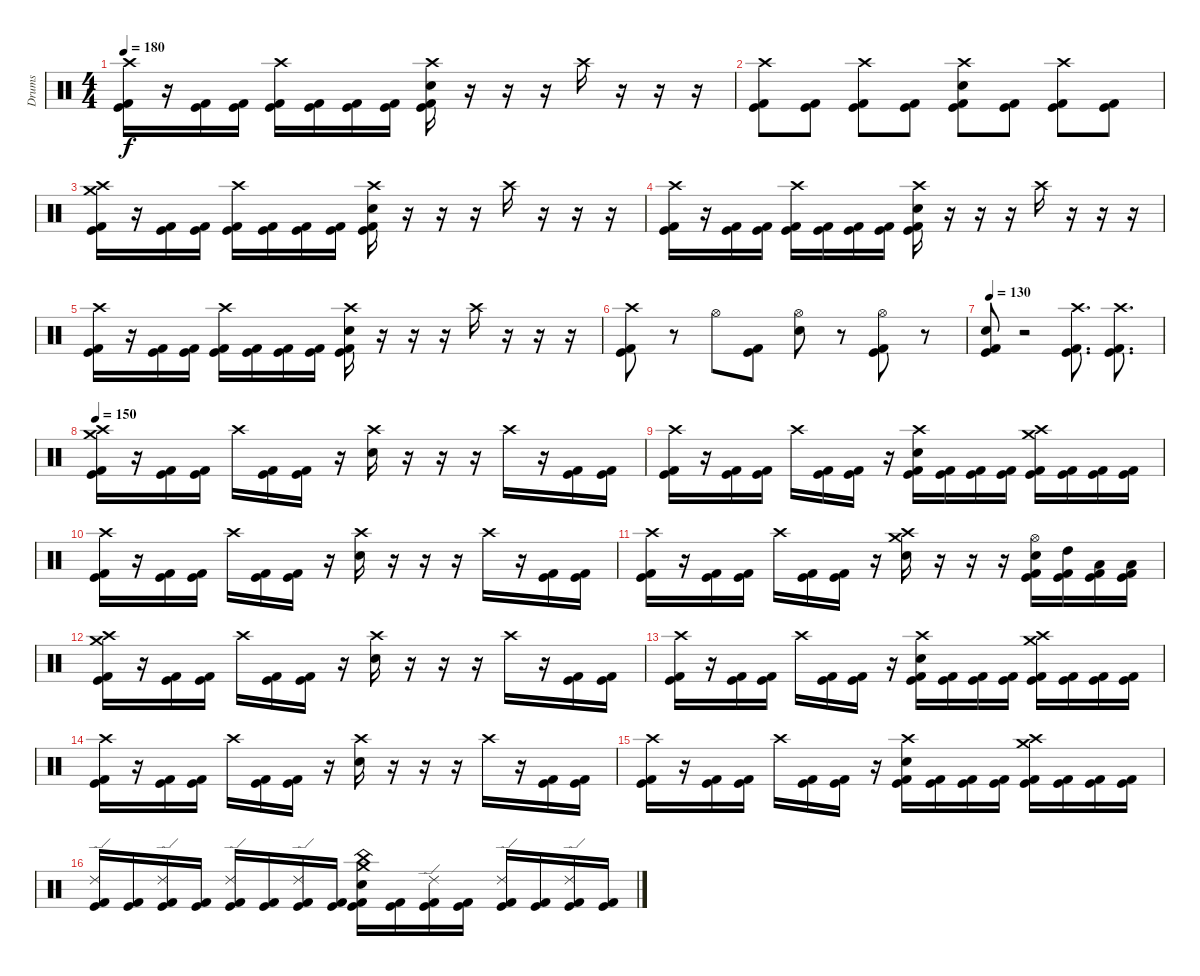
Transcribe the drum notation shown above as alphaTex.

\track ("Drums" "Drums") {instrument percussion}
\staff {score}
\articulation defaults
\ts (4 4)
\tempo 180
\clef neutral
\ks c
("Crash high (hit)" "Kick (hit)" "Kick (hit) 2").16{dy f} r.16 ("Kick (hit)" "Kick (hit) 2").16 ("Kick (hit)" "Kick (hit) 2").16 ("Crash high (hit)" "Kick (hit)" "Kick (hit) 2").16 ("Kick (hit)" "Kick (hit) 2").16 ("Kick (hit)" "Kick (hit) 2").16 ("Kick (hit)" "Kick (hit) 2").16 ("Crash high (hit)" "Electric Snare (hit)" "Kick (hit)" "Kick (hit) 2").16 r.16 r.16 r.16 "Crash high (hit)".16 r.16 r.16 r.16 |
("Crash high (hit)" "Kick (hit)" "Kick (hit) 2").8 ("Kick (hit)" "Kick (hit) 2").8 ("Crash high (hit)" "Kick (hit)" "Kick (hit) 2").8 ("Kick (hit)" "Kick (hit) 2").8 ("Crash high (hit)" "Electric Snare (hit)" "Kick (hit)" "Kick (hit) 2").8 ("Kick (hit)" "Kick (hit) 2").8 ("Crash high (hit)" "Kick (hit)" "Kick (hit) 2").8 ("Kick (hit)" "Kick (hit) 2").8 |
("Crash medium (hit)" "Crash high (hit)" "Kick (hit)" "Kick (hit) 2").16 r.16 ("Kick (hit)" "Kick (hit) 2").16 ("Kick (hit)" "Kick (hit) 2").16 ("Crash high (hit)" "Kick (hit)" "Kick (hit) 2").16 ("Kick (hit)" "Kick (hit) 2").16 ("Kick (hit)" "Kick (hit) 2").16 ("Kick (hit)" "Kick (hit) 2").16 ("Crash high (hit)" "Electric Snare (hit)" "Kick (hit)" "Kick (hit) 2").16 r.16 r.16 r.16 "Crash high (hit)".16 r.16 r.16 r.16 |
("Crash high (hit)" "Kick (hit)" "Kick (hit) 2").16 r.16 ("Kick (hit)" "Kick (hit) 2").16 ("Kick (hit)" "Kick (hit) 2").16 ("Crash high (hit)" "Kick (hit)" "Kick (hit) 2").16 ("Kick (hit)" "Kick (hit) 2").16 ("Kick (hit)" "Kick (hit) 2").16 ("Kick (hit)" "Kick (hit) 2").16 ("Crash high (hit)" "Electric Snare (hit)" "Kick (hit)" "Kick (hit) 2").16 r.16 r.16 r.16 "Crash high (hit)".16 r.16 r.16 r.16 |
("Crash high (hit)" "Kick (hit)" "Kick (hit) 2").16 r.16 ("Kick (hit)" "Kick (hit) 2").16 ("Kick (hit)" "Kick (hit) 2").16 ("Crash high (hit)" "Kick (hit)" "Kick (hit) 2").16 ("Kick (hit)" "Kick (hit) 2").16 ("Kick (hit)" "Kick (hit) 2").16 ("Kick (hit)" "Kick (hit) 2").16 ("Crash high (hit)" "Electric Snare (hit)" "Kick (hit)" "Kick (hit) 2").16 r.16 r.16 r.16 "Crash high (hit)".16 r.16 r.16 r.16 |
("Crash high (hit)" "Kick (hit)" "Kick (hit) 2").8 r.8 "Hi-Hat (open)".8 ("Kick (hit)" "Kick (hit) 2").8 ("Hi-Hat (open)" "Electric Snare (hit)").8 r.8 ("Hi-Hat (open)" "Kick (hit)" "Kick (hit) 2").8 r.8 |
\tempo 130
("Electric Snare (hit)" "Kick (hit)" "Kick (hit) 2").8 r.2 ("Crash high (hit)" "Kick (hit)" "Kick (hit) 2").8{d} ("Crash high (hit)" "Kick (hit)" "Kick (hit) 2").8{d} |
\tempo 150
("Crash medium (hit)" "Crash high (hit)" "Kick (hit)" "Kick (hit) 2").16 r.16 ("Kick (hit)" "Kick (hit) 2").16 ("Kick (hit)" "Kick (hit) 2").16 "Crash high (hit)".16 ("Kick (hit)" "Kick (hit) 2").16 ("Kick (hit)" "Kick (hit) 2").16 r.16 ("Crash high (hit)" "Electric Snare (hit)").16 r.16 r.16 r.16 "Crash high (hit)".16 r.16 ("Kick (hit)" "Kick (hit) 2").16 ("Kick (hit)" "Kick (hit) 2").16 |
("Crash high (hit)" "Kick (hit)" "Kick (hit) 2").16 r.16 ("Kick (hit)" "Kick (hit) 2").16 ("Kick (hit)" "Kick (hit) 2").16 "Crash high (hit)".16 ("Kick (hit)" "Kick (hit) 2").16 ("Kick (hit)" "Kick (hit) 2").16 r.16 ("Crash high (hit)" "Electric Snare (hit)" "Kick (hit)" "Kick (hit) 2").16 ("Kick (hit)" "Kick (hit) 2").16 ("Kick (hit)" "Kick (hit) 2").16 ("Kick (hit)" "Kick (hit) 2").16 ("Crash medium (hit)" "Crash high (hit)" "Kick (hit)" "Kick (hit) 2").16 ("Kick (hit)" "Kick (hit) 2").16 ("Kick (hit)" "Kick (hit) 2").16 ("Kick (hit)" "Kick (hit) 2").16 |
("Crash high (hit)" "Kick (hit)" "Kick (hit) 2").16 r.16 ("Kick (hit)" "Kick (hit) 2").16 ("Kick (hit)" "Kick (hit) 2").16 "Crash high (hit)".16 ("Kick (hit)" "Kick (hit) 2").16 ("Kick (hit)" "Kick (hit) 2").16 r.16 ("Crash high (hit)" "Electric Snare (hit)").16 r.16 r.16 r.16 "Crash high (hit)".16 r.16 ("Kick (hit)" "Kick (hit) 2").16 ("Kick (hit)" "Kick (hit) 2").16 |
("Crash high (hit)" "Kick (hit)" "Kick (hit) 2").16 r.16 ("Kick (hit)" "Kick (hit) 2").16 ("Kick (hit)" "Kick (hit) 2").16 "Crash high (hit)".16 ("Kick (hit)" "Kick (hit) 2").16 ("Kick (hit)" "Kick (hit) 2").16 r.16 ("Crash medium (hit)" "Crash high (hit)" "Electric Snare (hit)").16 r.16 r.16 r.16 ("Hi-Hat (open)" "Electric Snare (hit)" "Kick (hit)" "Kick (hit) 2").16 ("High Tom (hit)" "Kick (hit)" "Kick (hit) 2").16 ("Low Tom (hit)" "Kick (hit)" "Kick (hit) 2").16 ("Low Floor Tom (hit)" "Kick (hit)" "Kick (hit) 2").16 |
("Crash medium (hit)" "Crash high (hit)" "Kick (hit)" "Kick (hit) 2").16 r.16 ("Kick (hit)" "Kick (hit) 2").16 ("Kick (hit)" "Kick (hit) 2").16 "Crash high (hit)".16 ("Kick (hit)" "Kick (hit) 2").16 ("Kick (hit)" "Kick (hit) 2").16 r.16 ("Crash high (hit)" "Electric Snare (hit)").16 r.16 r.16 r.16 "Crash high (hit)".16 r.16 ("Kick (hit)" "Kick (hit) 2").16 ("Kick (hit)" "Kick (hit) 2").16 |
("Crash high (hit)" "Kick (hit)" "Kick (hit) 2").16 r.16 ("Kick (hit)" "Kick (hit) 2").16 ("Kick (hit)" "Kick (hit) 2").16 "Crash high (hit)".16 ("Kick (hit)" "Kick (hit) 2").16 ("Kick (hit)" "Kick (hit) 2").16 r.16 ("Crash high (hit)" "Electric Snare (hit)" "Kick (hit)" "Kick (hit) 2").16 ("Kick (hit)" "Kick (hit) 2").16 ("Kick (hit)" "Kick (hit) 2").16 ("Kick (hit)" "Kick (hit) 2").16 ("Crash medium (hit)" "Crash high (hit)" "Kick (hit)" "Kick (hit) 2").16 ("Kick (hit)" "Kick (hit) 2").16 ("Kick (hit)" "Kick (hit) 2").16 ("Kick (hit)" "Kick (hit) 2").16 |
("Crash high (hit)" "Kick (hit)" "Kick (hit) 2").16 r.16 ("Kick (hit)" "Kick (hit) 2").16 ("Kick (hit)" "Kick (hit) 2").16 "Crash high (hit)".16 ("Kick (hit)" "Kick (hit) 2").16 ("Kick (hit)" "Kick (hit) 2").16 r.16 ("Crash high (hit)" "Electric Snare (hit)").16 r.16 r.16 r.16 "Crash high (hit)".16 r.16 ("Kick (hit)" "Kick (hit) 2").16 ("Kick (hit)" "Kick (hit) 2").16 |
("Crash high (hit)" "Kick (hit)" "Kick (hit) 2").16 r.16 ("Kick (hit)" "Kick (hit) 2").16 ("Kick (hit)" "Kick (hit) 2").16 "Crash high (hit)".16 ("Kick (hit)" "Kick (hit) 2").16 ("Kick (hit)" "Kick (hit) 2").16 r.16 ("Crash high (hit)" "Electric Snare (hit)" "Kick (hit)" "Kick (hit) 2").16 ("Kick (hit)" "Kick (hit) 2").16 ("Kick (hit)" "Kick (hit) 2").16 ("Kick (hit)" "Kick (hit) 2").16 ("Crash medium (hit)" "Crash high (hit)" "Kick (hit)" "Kick (hit) 2").16 ("Kick (hit)" "Kick (hit) 2").16 ("Kick (hit)" "Kick (hit) 2").16 ("Kick (hit)" "Kick (hit) 2").16 |
("Ride (edge) 2" "Kick (hit)" "Kick (hit) 2").16 ("Kick (hit)" "Kick (hit) 2").16 ("Ride (edge) 2" "Kick (hit)" "Kick (hit) 2").16 ("Kick (hit)" "Kick (hit) 2").16 ("Ride (edge) 2" "Kick (hit)" "Kick (hit) 2").16 ("Kick (hit)" "Kick (hit) 2").16 ("Ride (edge) 2" "Kick (hit)" "Kick (hit) 2").16 ("Kick (hit)" "Kick (hit) 2").16 ("Crash medium (hit)" "China (hit)" "Electric Snare (hit)" "Kick (hit)" "Kick (hit) 2").16 ("Kick (hit)" "Kick (hit) 2").16 ("Ride (edge) 2" "Kick (hit)" "Kick (hit) 2").16 ("Kick (hit)" "Kick (hit) 2").16 ("Ride (edge) 2" "Kick (hit)" "Kick (hit) 2").16 ("Kick (hit)" "Kick (hit) 2").16 ("Ride (edge) 2" "Kick (hit)" "Kick (hit) 2").16 ("Kick (hit)" "Kick (hit) 2").16
